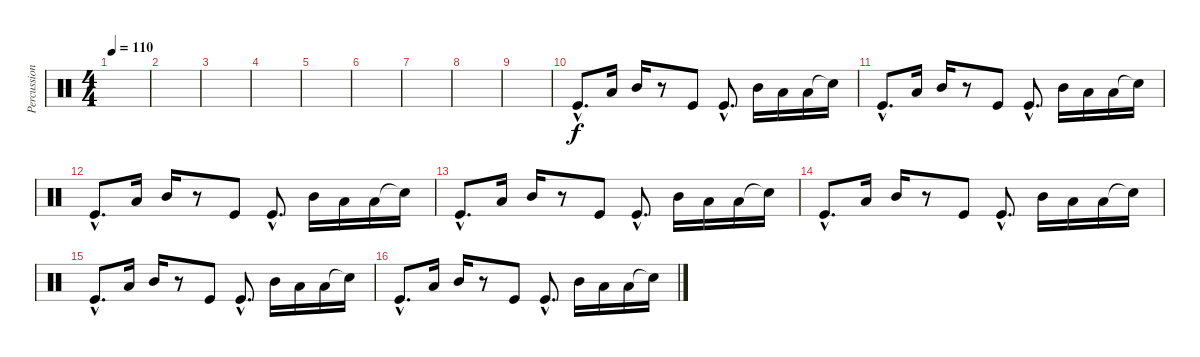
\track ("Percussions" "Percussion") {instrument percussion}
\staff {score}
\articulation defaults
\ts (4 4)
\tempo 110
\clef neutral
\ks c
|
|
|
|
|
|
|
|
|
"Kick (hit)"{hac}.8{d} "Low Floor Tom (hit)".16 "Mid Tom (hit)".16 r.8 "Kick (hit)".8 "Kick (hit)"{hac}.8{d} "Mid Tom (hit)".16 "Low Tom (hit)".16 "Low Floor Tom (hit)".16 "Snare (hit)"{t}.16 |
"Kick (hit)"{hac}.8{d} "Low Floor Tom (hit)".16 "Mid Tom (hit)".16 r.8 "Kick (hit)".8 "Kick (hit)"{hac}.8{d} "Mid Tom (hit)".16 "Low Tom (hit)".16 "Low Floor Tom (hit)".16 "Snare (hit)"{t}.16 |
"Kick (hit)"{hac}.8{d} "Low Floor Tom (hit)".16 "Mid Tom (hit)".16 r.8 "Kick (hit)".8 "Kick (hit)"{hac}.8{d} "Mid Tom (hit)".16 "Low Tom (hit)".16 "Low Floor Tom (hit)".16 "Snare (hit)"{t}.16 |
"Kick (hit)"{hac}.8{d} "Low Floor Tom (hit)".16 "Mid Tom (hit)".16 r.8 "Kick (hit)".8 "Kick (hit)"{hac}.8{d} "Mid Tom (hit)".16 "Low Tom (hit)".16 "Low Floor Tom (hit)".16 "Snare (hit)"{t}.16 |
"Kick (hit)"{hac}.8{d} "Low Floor Tom (hit)".16 "Mid Tom (hit)".16 r.8 "Kick (hit)".8 "Kick (hit)"{hac}.8{d} "Mid Tom (hit)".16 "Low Tom (hit)".16 "Low Floor Tom (hit)".16 "Snare (hit)"{t}.16 |
"Kick (hit)"{hac}.8{d} "Low Floor Tom (hit)".16 "Mid Tom (hit)".16 r.8 "Kick (hit)".8 "Kick (hit)"{hac}.8{d} "Mid Tom (hit)".16 "Low Tom (hit)".16 "Low Floor Tom (hit)".16 "Snare (hit)"{t}.16 |
"Kick (hit)"{hac}.8{d} "Low Floor Tom (hit)".16 "Mid Tom (hit)".16 r.8 "Kick (hit)".8 "Kick (hit)"{hac}.8{d} "Mid Tom (hit)".16 "Low Tom (hit)".16 "Low Floor Tom (hit)".16 "Snare (hit)"{t}.16
